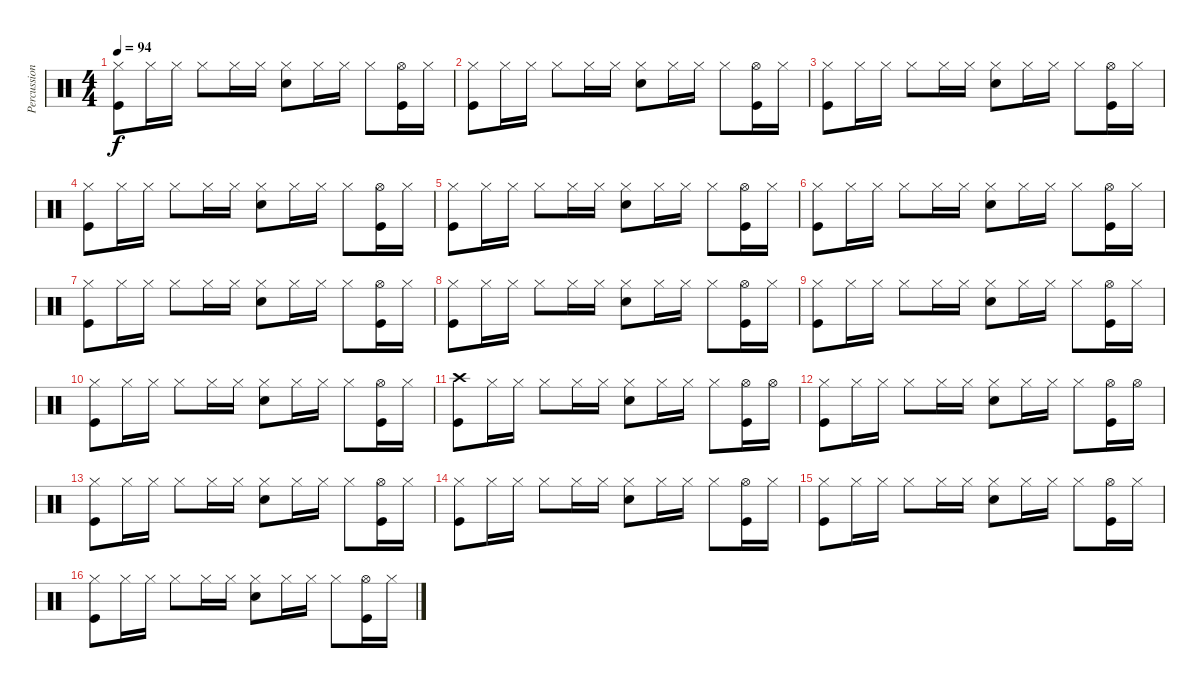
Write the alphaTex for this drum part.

\track ("Percussions" "Percussion") {instrument percussion}
\staff {score}
\articulation defaults
\ts (4 4)
\tempo 94
\clef neutral
\ks c
("Hi-Hat (closed)" "Kick (hit)").8{dy f} "Hi-Hat (closed)".16 "Hi-Hat (closed)".16 "Hi-Hat (closed)".8 "Hi-Hat (closed)".16 "Hi-Hat (closed)".16 ("Hi-Hat (closed)" "Electric Snare (hit)").8 "Hi-Hat (closed)".16 "Hi-Hat (closed)".16 "Hi-Hat (closed)".8 ("Hi-Hat (open)" "Kick (hit)").16 "Hi-Hat (closed)".16 |
("Hi-Hat (closed)" "Kick (hit)").8 "Hi-Hat (closed)".16 "Hi-Hat (closed)".16 "Hi-Hat (closed)".8 "Hi-Hat (closed)".16 "Hi-Hat (closed)".16 ("Hi-Hat (closed)" "Electric Snare (hit)").8 "Hi-Hat (closed)".16 "Hi-Hat (closed)".16 "Hi-Hat (closed)".8 ("Hi-Hat (open)" "Kick (hit)").16 "Hi-Hat (closed)".16 |
("Hi-Hat (closed)" "Kick (hit)").8 "Hi-Hat (closed)".16 "Hi-Hat (closed)".16 "Hi-Hat (closed)".8 "Hi-Hat (closed)".16 "Hi-Hat (closed)".16 ("Hi-Hat (closed)" "Electric Snare (hit)").8 "Hi-Hat (closed)".16 "Hi-Hat (closed)".16 "Hi-Hat (closed)".8 ("Hi-Hat (open)" "Kick (hit)").16 "Hi-Hat (closed)".16 |
("Hi-Hat (closed)" "Kick (hit)").8 "Hi-Hat (closed)".16 "Hi-Hat (closed)".16 "Hi-Hat (closed)".8 "Hi-Hat (closed)".16 "Hi-Hat (closed)".16 ("Hi-Hat (closed)" "Electric Snare (hit)").8 "Hi-Hat (closed)".16 "Hi-Hat (closed)".16 "Hi-Hat (closed)".8 ("Hi-Hat (open)" "Kick (hit)").16 "Hi-Hat (closed)".16 |
("Hi-Hat (closed)" "Kick (hit)").8 "Hi-Hat (closed)".16 "Hi-Hat (closed)".16 "Hi-Hat (closed)".8 "Hi-Hat (closed)".16 "Hi-Hat (closed)".16 ("Hi-Hat (closed)" "Electric Snare (hit)").8 "Hi-Hat (closed)".16 "Hi-Hat (closed)".16 "Hi-Hat (closed)".8 ("Hi-Hat (open)" "Kick (hit)").16 "Hi-Hat (closed)".16 |
("Hi-Hat (closed)" "Kick (hit)").8 "Hi-Hat (closed)".16 "Hi-Hat (closed)".16 "Hi-Hat (closed)".8 "Hi-Hat (closed)".16 "Hi-Hat (closed)".16 ("Hi-Hat (closed)" "Electric Snare (hit)").8 "Hi-Hat (closed)".16 "Hi-Hat (closed)".16 "Hi-Hat (closed)".8 ("Hi-Hat (open)" "Kick (hit)").16 "Hi-Hat (closed)".16 |
("Hi-Hat (closed)" "Kick (hit)").8 "Hi-Hat (closed)".16 "Hi-Hat (closed)".16 "Hi-Hat (closed)".8 "Hi-Hat (closed)".16 "Hi-Hat (closed)".16 ("Hi-Hat (closed)" "Electric Snare (hit)").8 "Hi-Hat (closed)".16 "Hi-Hat (closed)".16 "Hi-Hat (closed)".8 ("Hi-Hat (open)" "Kick (hit)").16 "Hi-Hat (closed)".16 |
("Hi-Hat (closed)" "Kick (hit)").8 "Hi-Hat (closed)".16 "Hi-Hat (closed)".16 "Hi-Hat (closed)".8 "Hi-Hat (closed)".16 "Hi-Hat (closed)".16 ("Hi-Hat (closed)" "Electric Snare (hit)").8 "Hi-Hat (closed)".16 "Hi-Hat (closed)".16 "Hi-Hat (closed)".8 ("Hi-Hat (open)" "Kick (hit)").16 "Hi-Hat (closed)".16 |
("Hi-Hat (closed)" "Kick (hit)").8 "Hi-Hat (closed)".16 "Hi-Hat (closed)".16 "Hi-Hat (closed)".8 "Hi-Hat (closed)".16 "Hi-Hat (closed)".16 ("Hi-Hat (closed)" "Electric Snare (hit)").8 "Hi-Hat (closed)".16 "Hi-Hat (closed)".16 "Hi-Hat (closed)".8 ("Hi-Hat (open)" "Kick (hit)").16 "Hi-Hat (closed)".16 |
("Hi-Hat (closed)" "Kick (hit)").8 "Hi-Hat (closed)".16 "Hi-Hat (closed)".16 "Hi-Hat (closed)".8 "Hi-Hat (closed)".16 "Hi-Hat (closed)".16 ("Hi-Hat (closed)" "Electric Snare (hit)").8 "Hi-Hat (closed)".16 "Hi-Hat (closed)".16 "Hi-Hat (closed)".8 ("Hi-Hat (open)" "Kick (hit)").16 "Hi-Hat (closed)".16 |
("Crash high (hit)" "Kick (hit)").8 "Hi-Hat (closed)".16 "Hi-Hat (closed)".16 "Hi-Hat (closed)".8 "Hi-Hat (closed)".16 "Hi-Hat (closed)".16 ("Hi-Hat (closed)" "Electric Snare (hit)").8 "Hi-Hat (closed)".16 "Hi-Hat (closed)".16 "Hi-Hat (closed)".8 ("Hi-Hat (open)" "Kick (hit)").16 "Hi-Hat (open)".16 |
("Hi-Hat (closed)" "Kick (hit)").8 "Hi-Hat (closed)".16 "Hi-Hat (closed)".16 "Hi-Hat (closed)".8 "Hi-Hat (closed)".16 "Hi-Hat (closed)".16 ("Hi-Hat (closed)" "Electric Snare (hit)").8 "Hi-Hat (closed)".16 "Hi-Hat (closed)".16 "Hi-Hat (closed)".8 ("Hi-Hat (open)" "Kick (hit)").16 "Hi-Hat (open)".16 |
("Hi-Hat (closed)" "Kick (hit)").8 "Hi-Hat (closed)".16 "Hi-Hat (closed)".16 "Hi-Hat (closed)".8 "Hi-Hat (closed)".16 "Hi-Hat (closed)".16 ("Hi-Hat (closed)" "Electric Snare (hit)").8 "Hi-Hat (closed)".16 "Hi-Hat (closed)".16 "Hi-Hat (closed)".8 ("Hi-Hat (open)" "Kick (hit)").16 "Hi-Hat (closed)".16 |
("Hi-Hat (closed)" "Kick (hit)").8 "Hi-Hat (closed)".16 "Hi-Hat (closed)".16 "Hi-Hat (closed)".8 "Hi-Hat (closed)".16 "Hi-Hat (closed)".16 ("Hi-Hat (closed)" "Electric Snare (hit)").8 "Hi-Hat (closed)".16 "Hi-Hat (closed)".16 "Hi-Hat (closed)".8 ("Hi-Hat (open)" "Kick (hit)").16 "Hi-Hat (closed)".16 |
("Hi-Hat (closed)" "Kick (hit)").8 "Hi-Hat (closed)".16 "Hi-Hat (closed)".16 "Hi-Hat (closed)".8 "Hi-Hat (closed)".16 "Hi-Hat (closed)".16 ("Hi-Hat (closed)" "Electric Snare (hit)").8 "Hi-Hat (closed)".16 "Hi-Hat (closed)".16 "Hi-Hat (closed)".8 ("Hi-Hat (open)" "Kick (hit)").16 "Hi-Hat (closed)".16 |
("Hi-Hat (closed)" "Kick (hit)").8 "Hi-Hat (closed)".16 "Hi-Hat (closed)".16 "Hi-Hat (closed)".8 "Hi-Hat (closed)".16 "Hi-Hat (closed)".16 ("Hi-Hat (closed)" "Electric Snare (hit)").8 "Hi-Hat (closed)".16 "Hi-Hat (closed)".16 "Hi-Hat (closed)".8 ("Hi-Hat (open)" "Kick (hit)").16 "Hi-Hat (closed)".16
